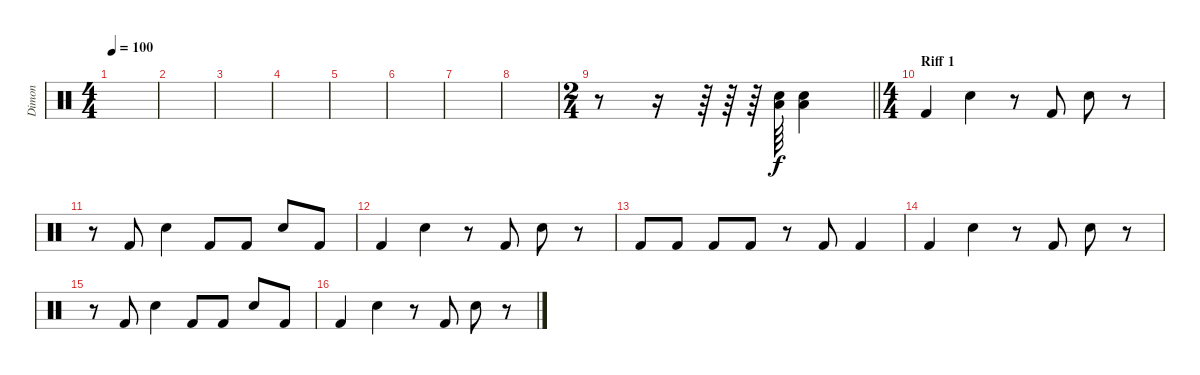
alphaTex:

\track ("Dimon" "Dimon") {instrument percussion}
\staff {score}
\articulation defaults
\ts (4 4)
\tempo 100
\clef neutral
\ks c
|
|
|
|
|
|
|
|
\ts (2 4)
\barLineRight lightlight
r.8 r.16 r.64 r.64 r.64 ("Electric Snare (hit)" "Low Floor Tom (hit)").64 ("Electric Snare (hit)" "Low Floor Tom (hit)").4 |
\ts (4 4)
\section ("" "Riff 1")
"Kick (hit) 2".4 "Electric Snare (hit)".4 r.8 "Kick (hit) 2".8 "Electric Snare (hit)".8 r.8 |
r.8 "Kick (hit) 2".8 "Electric Snare (hit)".4 "Kick (hit) 2".8 "Kick (hit) 2".8 "Electric Snare (hit)".8 "Kick (hit) 2".8 |
"Kick (hit) 2".4 "Electric Snare (hit)".4 r.8 "Kick (hit) 2".8 "Electric Snare (hit)".8 r.8 |
"Kick (hit) 2".8 "Kick (hit) 2".8 "Kick (hit) 2".8 "Kick (hit) 2".8 r.8 "Kick (hit) 2".8 "Kick (hit) 2".4 |
"Kick (hit) 2".4 "Electric Snare (hit)".4 r.8 "Kick (hit) 2".8 "Electric Snare (hit)".8 r.8 |
r.8 "Kick (hit) 2".8 "Electric Snare (hit)".4 "Kick (hit) 2".8 "Kick (hit) 2".8 "Electric Snare (hit)".8 "Kick (hit) 2".8 |
"Kick (hit) 2".4 "Electric Snare (hit)".4 r.8 "Kick (hit) 2".8 "Electric Snare (hit)".8 r.8
